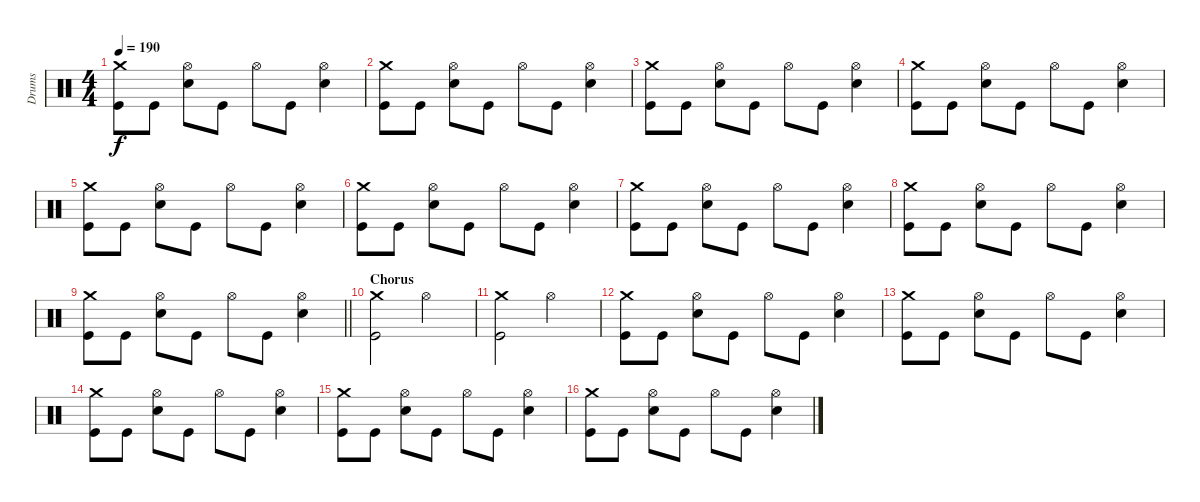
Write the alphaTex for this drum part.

\track ("Drums" "Drums") {instrument percussion}
\staff {score}
\articulation defaults
\ts (4 4)
\tempo 190
\clef neutral
\ks c
("Crash medium (hit)" "Kick (hit)").8{dy f} "Kick (hit)".8 ("Hi-Hat (open)" "Snare (hit) 2").8 "Kick (hit)".8 "Hi-Hat (open)".8 "Kick (hit)".8 ("Hi-Hat (open)" "Snare (hit) 2").4 |
("Crash medium (hit)" "Kick (hit)").8 "Kick (hit)".8 ("Hi-Hat (open)" "Snare (hit) 2").8 "Kick (hit)".8 "Hi-Hat (open)".8 "Kick (hit)".8 ("Hi-Hat (open)" "Snare (hit) 2").4 |
("Crash medium (hit)" "Kick (hit)").8 "Kick (hit)".8 ("Hi-Hat (open)" "Snare (hit) 2").8 "Kick (hit)".8 "Hi-Hat (open)".8 "Kick (hit)".8 ("Hi-Hat (open)" "Snare (hit) 2").4 |
("Crash medium (hit)" "Kick (hit)").8 "Kick (hit)".8 ("Hi-Hat (open)" "Snare (hit) 2").8 "Kick (hit)".8 "Hi-Hat (open)".8 "Kick (hit)".8 ("Hi-Hat (open)" "Snare (hit) 2").4 |
("Crash medium (hit)" "Kick (hit)").8 "Kick (hit)".8 ("Hi-Hat (open)" "Snare (hit) 2").8 "Kick (hit)".8 "Hi-Hat (open)".8 "Kick (hit)".8 ("Hi-Hat (open)" "Snare (hit) 2").4 |
("Crash medium (hit)" "Kick (hit)").8 "Kick (hit)".8 ("Hi-Hat (open)" "Snare (hit) 2").8 "Kick (hit)".8 "Hi-Hat (open)".8 "Kick (hit)".8 ("Hi-Hat (open)" "Snare (hit) 2").4 |
("Crash medium (hit)" "Kick (hit)").8 "Kick (hit)".8 ("Hi-Hat (open)" "Snare (hit) 2").8 "Kick (hit)".8 "Hi-Hat (open)".8 "Kick (hit)".8 ("Hi-Hat (open)" "Snare (hit) 2").4 |
("Crash medium (hit)" "Kick (hit)").8 "Kick (hit)".8 ("Hi-Hat (open)" "Snare (hit) 2").8 "Kick (hit)".8 "Hi-Hat (open)".8 "Kick (hit)".8 ("Hi-Hat (open)" "Snare (hit) 2").4 |
\barLineRight lightlight
("Crash medium (hit)" "Kick (hit)").8 "Kick (hit)".8 ("Hi-Hat (open)" "Snare (hit) 2").8 "Kick (hit)".8 "Hi-Hat (open)".8 "Kick (hit)".8 ("Hi-Hat (open)" "Snare (hit) 2").4 |
\section ("" "Chorus")
("Crash medium (hit)" "Kick (hit)").2 "Hi-Hat (open)".2 |
("Crash medium (hit)" "Kick (hit)").2 "Hi-Hat (open)".2 |
("Crash medium (hit)" "Kick (hit)").8 "Kick (hit)".8 ("Hi-Hat (open)" "Snare (hit) 2").8 "Kick (hit)".8 "Hi-Hat (open)".8 "Kick (hit)".8 ("Hi-Hat (open)" "Snare (hit) 2").4 |
("Crash medium (hit)" "Kick (hit)").8 "Kick (hit)".8 ("Hi-Hat (open)" "Snare (hit) 2").8 "Kick (hit)".8 "Hi-Hat (open)".8 "Kick (hit)".8 ("Hi-Hat (open)" "Snare (hit) 2").4 |
("Crash medium (hit)" "Kick (hit)").8 "Kick (hit)".8 ("Hi-Hat (open)" "Snare (hit) 2").8 "Kick (hit)".8 "Hi-Hat (open)".8 "Kick (hit)".8 ("Hi-Hat (open)" "Snare (hit) 2").4 |
("Crash medium (hit)" "Kick (hit)").8 "Kick (hit)".8 ("Hi-Hat (open)" "Snare (hit) 2").8 "Kick (hit)".8 "Hi-Hat (open)".8 "Kick (hit)".8 ("Hi-Hat (open)" "Snare (hit) 2").4 |
("Crash medium (hit)" "Kick (hit)").8 "Kick (hit)".8 ("Hi-Hat (open)" "Snare (hit) 2").8 "Kick (hit)".8 "Hi-Hat (open)".8 "Kick (hit)".8 ("Hi-Hat (open)" "Snare (hit) 2").4
